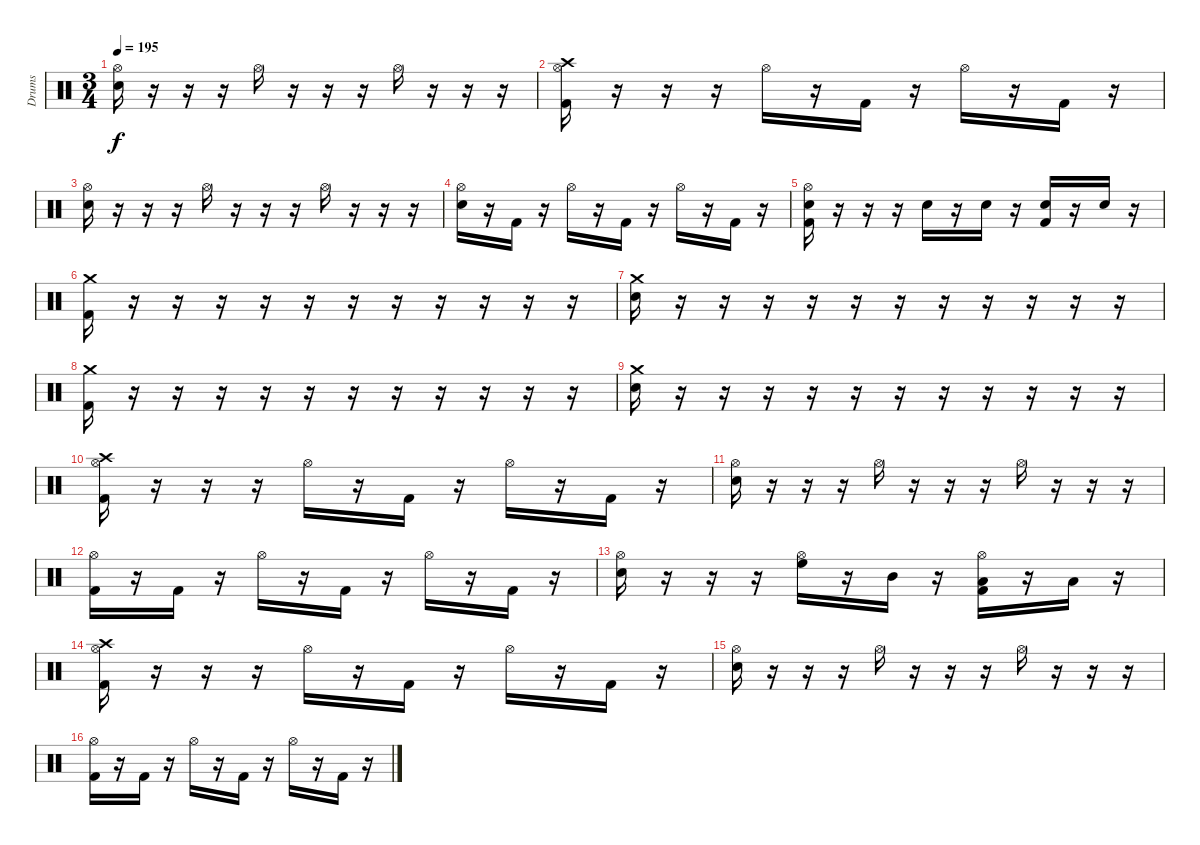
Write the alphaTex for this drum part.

\track ("Drums" "Drums") {instrument percussion}
\staff {score}
\articulation defaults
\ts (3 4)
\tempo 195
\clef neutral
\ks c
("Hi-Hat (open)" "Snare (hit) 2").16{dy f} r.16 r.16 r.16 "Hi-Hat (open)".16 r.16 r.16 r.16 "Hi-Hat (open)".16 r.16 r.16 r.16 |
("Crash high (hit)" "Hi-Hat (open)" "Kick (hit) 2").16 r.16 r.16 r.16 "Hi-Hat (open)".16 r.16 "Kick (hit) 2".16 r.16 "Hi-Hat (open)".16 r.16 "Kick (hit) 2".16 r.16 |
("Hi-Hat (open)" "Snare (hit) 2").16 r.16 r.16 r.16 "Hi-Hat (open)".16 r.16 r.16 r.16 "Hi-Hat (open)".16 r.16 r.16 r.16 |
("Hi-Hat (open)" "Snare (hit) 2").16 r.16 "Kick (hit) 2".16 r.16 "Hi-Hat (open)".16 r.16 "Kick (hit) 2".16 r.16 "Hi-Hat (open)".16 r.16 "Kick (hit) 2".16 r.16 |
("Hi-Hat (open)" "Snare (hit) 2" "Kick (hit) 2").16 r.16 r.16 r.16 "Snare (hit) 2".16 r.16 "Snare (hit) 2".16 r.16 ("Snare (hit) 2" "Kick (hit) 2").16 r.16 "Snare (hit) 2".16 r.16 |
("Crash medium (hit)" "Kick (hit) 2").16 r.16 r.16 r.16 r.16 r.16 r.16 r.16 r.16 r.16 r.16 r.16 |
("Crash medium (hit)" "Snare (hit) 2").16 r.16 r.16 r.16 r.16 r.16 r.16 r.16 r.16 r.16 r.16 r.16 |
("Crash medium (hit)" "Kick (hit) 2").16 r.16 r.16 r.16 r.16 r.16 r.16 r.16 r.16 r.16 r.16 r.16 |
("Crash medium (hit)" "Snare (hit) 2").16 r.16 r.16 r.16 r.16 r.16 r.16 r.16 r.16 r.16 r.16 r.16 |
("Crash high (hit)" "Hi-Hat (open)" "Kick (hit) 2").16 r.16 r.16 r.16 "Hi-Hat (open)".16 r.16 "Kick (hit) 2".16 r.16 "Hi-Hat (open)".16 r.16 "Kick (hit) 2".16 r.16 |
("Hi-Hat (open)" "Snare (hit) 2").16 r.16 r.16 r.16 "Hi-Hat (open)".16 r.16 r.16 r.16 "Hi-Hat (open)".16 r.16 r.16 r.16 |
("Hi-Hat (open)" "Kick (hit) 2").16 r.16 "Kick (hit) 2".16 r.16 "Hi-Hat (open)".16 r.16 "Kick (hit) 2".16 r.16 "Hi-Hat (open)".16 r.16 "Kick (hit) 2".16 r.16 |
("Hi-Hat (open)" "Snare (hit) 2").16 r.16 r.16 r.16 ("Hi-Hat (open)" "High Floor Tom (hit)").16 r.16 "Mid Tom (hit)".16 r.16 ("Hi-Hat (open)" "Low Tom (hit)" "Kick (hit) 2").16 r.16 "Low Tom (hit)".16 r.16 |
("Crash high (hit)" "Hi-Hat (open)" "Kick (hit) 2").16 r.16 r.16 r.16 "Hi-Hat (open)".16 r.16 "Kick (hit) 2".16 r.16 "Hi-Hat (open)".16 r.16 "Kick (hit) 2".16 r.16 |
("Hi-Hat (open)" "Snare (hit) 2").16 r.16 r.16 r.16 "Hi-Hat (open)".16 r.16 r.16 r.16 "Hi-Hat (open)".16 r.16 r.16 r.16 |
("Hi-Hat (open)" "Kick (hit) 2").16 r.16 "Kick (hit) 2".16 r.16 "Hi-Hat (open)".16 r.16 "Kick (hit) 2".16 r.16 "Hi-Hat (open)".16 r.16 "Kick (hit) 2".16 r.16
